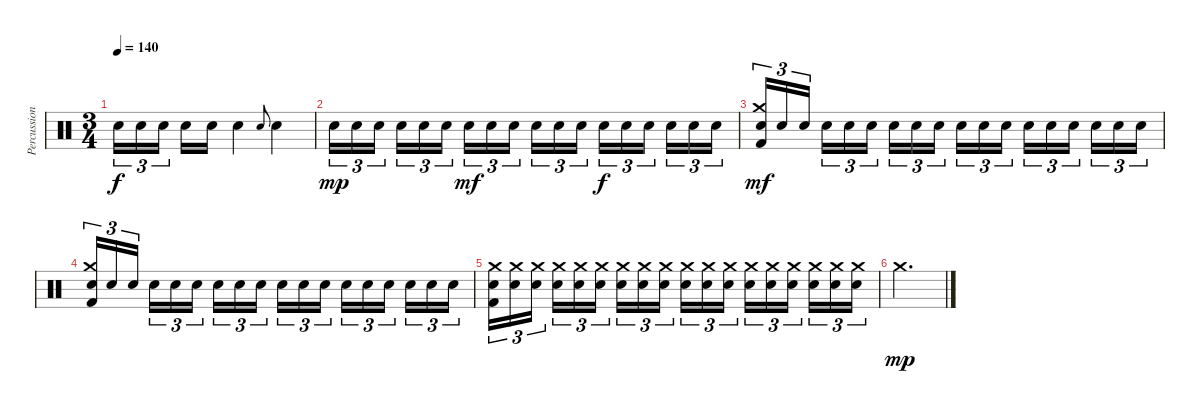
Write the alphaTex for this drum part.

\track ("Percussion" "Percussion") {instrument percussion}
\staff {score}
\articulation defaults
\ts (3 4)
\tempo 140
\clef neutral
\ks c "Snare (hit) 2".16{tu (3 2) dy f} "Snare (hit) 2".16{tu (3 2)} "Snare (hit) 2".16{tu (3 2) beam splitsecondary} "Snare (hit) 2".16 "Snare (hit) 2".16 "Snare (hit) 2".4 "Snare (hit) 2".8{gr onbeat} "Snare (hit) 2".4
|
"Snare (hit) 2".16{tu (3 2) dy mp} "Snare (hit) 2".16{tu (3 2)} "Snare (hit) 2".16{tu (3 2) beam splitsecondary} "Snare (hit) 2".16{tu (3 2)} "Snare (hit) 2".16{tu (3 2)} "Snare (hit) 2".16{tu (3 2)} "Snare (hit) 2".16{tu (3 2) dy mf} "Snare (hit) 2".16{tu (3 2)} "Snare (hit) 2".16{tu (3 2) beam splitsecondary} "Snare (hit) 2".16{tu (3 2)} "Snare (hit) 2".16{tu (3 2)} "Snare (hit) 2".16{tu (3 2)} "Snare (hit) 2".16{tu (3 2) dy f} "Snare (hit) 2".16{tu (3 2)} "Snare (hit) 2".16{tu (3 2) beam splitsecondary} "Snare (hit) 2".16{tu (3 2)} "Snare (hit) 2".16{tu (3 2)} "Snare (hit) 2".16{tu (3 2)} |
("Crash medium (hit)" "Kick (hit) 2" "Snare (hit) 2").16{tu (3 2) dy mf} "Snare (hit) 2".16{tu (3 2)} "Snare (hit) 2".16{tu (3 2) beam splitsecondary} "Snare (hit) 2".16{tu (3 2)} "Snare (hit) 2".16{tu (3 2)} "Snare (hit) 2".16{tu (3 2)} "Snare (hit) 2".16{tu (3 2)} "Snare (hit) 2".16{tu (3 2)} "Snare (hit) 2".16{tu (3 2) beam splitsecondary} "Snare (hit) 2".16{tu (3 2)} "Snare (hit) 2".16{tu (3 2)} "Snare (hit) 2".16{tu (3 2)} "Snare (hit) 2".16{tu (3 2)} "Snare (hit) 2".16{tu (3 2)} "Snare (hit) 2".16{tu (3 2) beam splitsecondary} "Snare (hit) 2".16{tu (3 2)} "Snare (hit) 2".16{tu (3 2)} "Snare (hit) 2".16{tu (3 2)} |
("Crash medium (hit)" "Kick (hit) 2" "Snare (hit) 2").16{tu (3 2)} "Snare (hit) 2".16{tu (3 2)} "Snare (hit) 2".16{tu (3 2) beam splitsecondary} "Snare (hit) 2".16{tu (3 2)} "Snare (hit) 2".16{tu (3 2)} "Snare (hit) 2".16{tu (3 2)} "Snare (hit) 2".16{tu (3 2)} "Snare (hit) 2".16{tu (3 2)} "Snare (hit) 2".16{tu (3 2) beam splitsecondary} "Snare (hit) 2".16{tu (3 2)} "Snare (hit) 2".16{tu (3 2)} "Snare (hit) 2".16{tu (3 2)} "Snare (hit) 2".16{tu (3 2)} "Snare (hit) 2".16{tu (3 2)} "Snare (hit) 2".16{tu (3 2) beam splitsecondary} "Snare (hit) 2".16{tu (3 2)} "Snare (hit) 2".16{tu (3 2)} "Snare (hit) 2".16{tu (3 2)} |
("Crash medium (hit)" "Kick (hit) 2" "Snare (hit) 2").16{tu (3 2)} ("Crash medium (hit)" "Snare (hit) 2").16{tu (3 2)} ("Crash medium (hit)" "Snare (hit) 2").16{tu (3 2) beam splitsecondary} ("Crash medium (hit)" "Snare (hit) 2").16{tu (3 2)} ("Crash medium (hit)" "Snare (hit) 2").16{tu (3 2)} ("Crash medium (hit)" "Snare (hit) 2").16{tu (3 2)} ("Crash medium (hit)" "Snare (hit) 2").16{tu (3 2)} ("Crash medium (hit)" "Snare (hit) 2").16{tu (3 2)} ("Crash medium (hit)" "Snare (hit) 2").16{tu (3 2) beam splitsecondary} ("Crash medium (hit)" "Snare (hit) 2").16{tu (3 2)} ("Crash medium (hit)" "Snare (hit) 2").16{tu (3 2)} ("Crash medium (hit)" "Snare (hit) 2").16{tu (3 2)} ("Crash medium (hit)" "Snare (hit) 2").16{tu (3 2)} ("Crash medium (hit)" "Snare (hit) 2").16{tu (3 2)} ("Crash medium (hit)" "Snare (hit) 2").16{tu (3 2) beam splitsecondary} ("Crash medium (hit)" "Snare (hit) 2").16{tu (3 2)} ("Crash medium (hit)" "Snare (hit) 2").16{tu (3 2)} ("Crash medium (hit)" "Snare (hit) 2").16{tu (3 2)} |
"Crash medium (hit)".2{d dy mp}
